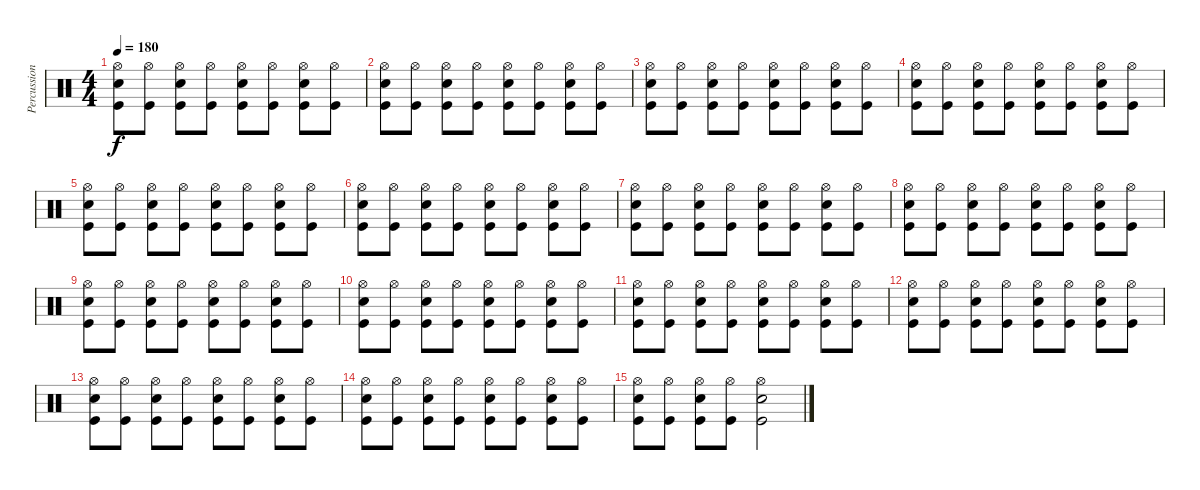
\track ("Percussion" "Percussion") {instrument percussion}
\staff {score}
\articulation defaults
\ts (4 4)
\tempo 180
\clef neutral
\ks c
("Hi-Hat (open)" "Snare (hit) 2" "Kick (hit)").8{dy f} ("Hi-Hat (open)" "Kick (hit)").8 ("Hi-Hat (open)" "Snare (hit) 2" "Kick (hit)").8 ("Hi-Hat (open)" "Kick (hit)").8 ("Hi-Hat (open)" "Snare (hit) 2" "Kick (hit)").8 ("Hi-Hat (open)" "Kick (hit)").8 ("Hi-Hat (open)" "Snare (hit) 2" "Kick (hit)").8 ("Hi-Hat (open)" "Kick (hit)").8 |
("Hi-Hat (open)" "Snare (hit) 2" "Kick (hit)").8 ("Hi-Hat (open)" "Kick (hit)").8 ("Hi-Hat (open)" "Snare (hit) 2" "Kick (hit)").8 ("Hi-Hat (open)" "Kick (hit)").8 ("Hi-Hat (open)" "Snare (hit) 2" "Kick (hit)").8 ("Hi-Hat (open)" "Kick (hit)").8 ("Hi-Hat (open)" "Snare (hit) 2" "Kick (hit)").8 ("Hi-Hat (open)" "Kick (hit)").8 |
("Hi-Hat (open)" "Snare (hit) 2" "Kick (hit)").8 ("Hi-Hat (open)" "Kick (hit)").8 ("Hi-Hat (open)" "Snare (hit) 2" "Kick (hit)").8 ("Hi-Hat (open)" "Kick (hit)").8 ("Hi-Hat (open)" "Snare (hit) 2" "Kick (hit)").8 ("Hi-Hat (open)" "Kick (hit)").8 ("Hi-Hat (open)" "Snare (hit) 2" "Kick (hit)").8 ("Hi-Hat (open)" "Kick (hit)").8 |
("Hi-Hat (open)" "Snare (hit) 2" "Kick (hit)").8 ("Hi-Hat (open)" "Kick (hit)").8 ("Hi-Hat (open)" "Snare (hit) 2" "Kick (hit)").8 ("Hi-Hat (open)" "Kick (hit)").8 ("Hi-Hat (open)" "Snare (hit) 2" "Kick (hit)").8 ("Hi-Hat (open)" "Kick (hit)").8 ("Hi-Hat (open)" "Snare (hit) 2" "Kick (hit)").8 ("Hi-Hat (open)" "Kick (hit)").8 |
("Hi-Hat (open)" "Snare (hit) 2" "Kick (hit)").8 ("Hi-Hat (open)" "Kick (hit)").8 ("Hi-Hat (open)" "Snare (hit) 2" "Kick (hit)").8 ("Hi-Hat (open)" "Kick (hit)").8 ("Hi-Hat (open)" "Snare (hit) 2" "Kick (hit)").8 ("Hi-Hat (open)" "Kick (hit)").8 ("Hi-Hat (open)" "Snare (hit) 2" "Kick (hit)").8 ("Hi-Hat (open)" "Kick (hit)").8 |
("Hi-Hat (open)" "Snare (hit) 2" "Kick (hit)").8 ("Hi-Hat (open)" "Kick (hit)").8 ("Hi-Hat (open)" "Snare (hit) 2" "Kick (hit)").8 ("Hi-Hat (open)" "Kick (hit)").8 ("Hi-Hat (open)" "Snare (hit) 2" "Kick (hit)").8 ("Hi-Hat (open)" "Kick (hit)").8 ("Hi-Hat (open)" "Snare (hit) 2" "Kick (hit)").8 ("Hi-Hat (open)" "Kick (hit)").8 |
("Hi-Hat (open)" "Snare (hit) 2" "Kick (hit)").8 ("Hi-Hat (open)" "Kick (hit)").8 ("Hi-Hat (open)" "Snare (hit) 2" "Kick (hit)").8 ("Hi-Hat (open)" "Kick (hit)").8 ("Hi-Hat (open)" "Snare (hit) 2" "Kick (hit)").8 ("Hi-Hat (open)" "Kick (hit)").8 ("Hi-Hat (open)" "Snare (hit) 2" "Kick (hit)").8 ("Hi-Hat (open)" "Kick (hit)").8 |
("Hi-Hat (open)" "Snare (hit) 2" "Kick (hit)").8 ("Hi-Hat (open)" "Kick (hit)").8 ("Hi-Hat (open)" "Snare (hit) 2" "Kick (hit)").8 ("Hi-Hat (open)" "Kick (hit)").8 ("Hi-Hat (open)" "Snare (hit) 2" "Kick (hit)").8 ("Hi-Hat (open)" "Kick (hit)").8 ("Hi-Hat (open)" "Snare (hit) 2" "Kick (hit)").8 ("Hi-Hat (open)" "Kick (hit)").8 |
("Hi-Hat (open)" "Snare (hit) 2" "Kick (hit)").8 ("Hi-Hat (open)" "Kick (hit)").8 ("Hi-Hat (open)" "Snare (hit) 2" "Kick (hit)").8 ("Hi-Hat (open)" "Kick (hit)").8 ("Hi-Hat (open)" "Snare (hit) 2" "Kick (hit)").8 ("Hi-Hat (open)" "Kick (hit)").8 ("Hi-Hat (open)" "Snare (hit) 2" "Kick (hit)").8 ("Hi-Hat (open)" "Kick (hit)").8 |
("Hi-Hat (open)" "Snare (hit) 2" "Kick (hit)").8 ("Hi-Hat (open)" "Kick (hit)").8 ("Hi-Hat (open)" "Snare (hit) 2" "Kick (hit)").8 ("Hi-Hat (open)" "Kick (hit)").8 ("Hi-Hat (open)" "Snare (hit) 2" "Kick (hit)").8 ("Hi-Hat (open)" "Kick (hit)").8 ("Hi-Hat (open)" "Snare (hit) 2" "Kick (hit)").8 ("Hi-Hat (open)" "Kick (hit)").8 |
("Hi-Hat (open)" "Snare (hit) 2" "Kick (hit)").8 ("Hi-Hat (open)" "Kick (hit)").8 ("Hi-Hat (open)" "Snare (hit) 2" "Kick (hit)").8 ("Hi-Hat (open)" "Kick (hit)").8 ("Hi-Hat (open)" "Snare (hit) 2" "Kick (hit)").8 ("Hi-Hat (open)" "Kick (hit)").8 ("Hi-Hat (open)" "Snare (hit) 2" "Kick (hit)").8 ("Hi-Hat (open)" "Kick (hit)").8 |
("Hi-Hat (open)" "Snare (hit) 2" "Kick (hit)").8 ("Hi-Hat (open)" "Kick (hit)").8 ("Hi-Hat (open)" "Snare (hit) 2" "Kick (hit)").8 ("Hi-Hat (open)" "Kick (hit)").8 ("Hi-Hat (open)" "Snare (hit) 2" "Kick (hit)").8 ("Hi-Hat (open)" "Kick (hit)").8 ("Hi-Hat (open)" "Snare (hit) 2" "Kick (hit)").8 ("Hi-Hat (open)" "Kick (hit)").8 |
("Hi-Hat (open)" "Snare (hit) 2" "Kick (hit)").8 ("Hi-Hat (open)" "Kick (hit)").8 ("Hi-Hat (open)" "Snare (hit) 2" "Kick (hit)").8 ("Hi-Hat (open)" "Kick (hit)").8 ("Hi-Hat (open)" "Snare (hit) 2" "Kick (hit)").8 ("Hi-Hat (open)" "Kick (hit)").8 ("Hi-Hat (open)" "Snare (hit) 2" "Kick (hit)").8 ("Hi-Hat (open)" "Kick (hit)").8 |
("Hi-Hat (open)" "Snare (hit) 2" "Kick (hit)").8 ("Hi-Hat (open)" "Kick (hit)").8 ("Hi-Hat (open)" "Snare (hit) 2" "Kick (hit)").8 ("Hi-Hat (open)" "Kick (hit)").8 ("Hi-Hat (open)" "Snare (hit) 2" "Kick (hit)").8 ("Hi-Hat (open)" "Kick (hit)").8 ("Hi-Hat (open)" "Snare (hit) 2" "Kick (hit)").8 ("Hi-Hat (open)" "Kick (hit)").8 |
("Hi-Hat (open)" "Snare (hit) 2" "Kick (hit)").8 ("Hi-Hat (open)" "Kick (hit)").8 ("Hi-Hat (open)" "Snare (hit) 2" "Kick (hit)").8 ("Hi-Hat (open)" "Kick (hit)").8 ("Hi-Hat (open)" "Snare (hit) 2" "Kick (hit)").2
